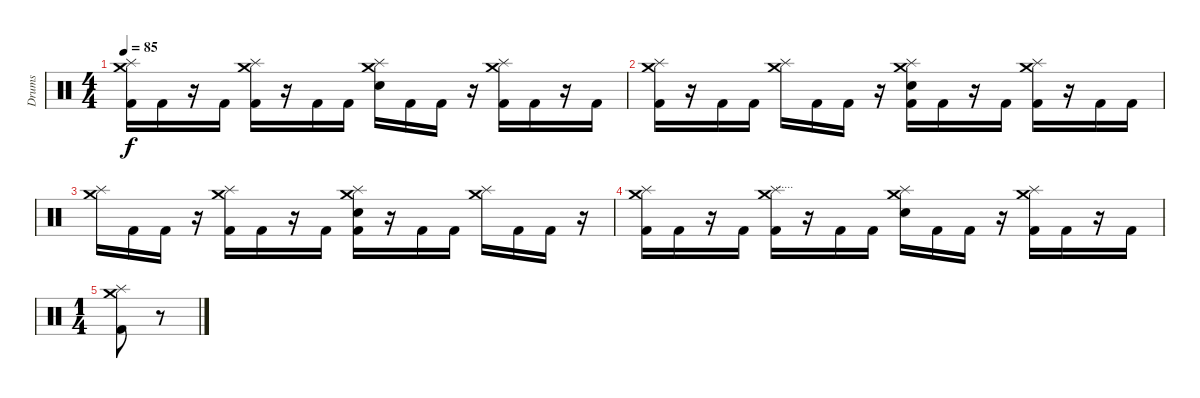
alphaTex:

\track ("Drums" "Drums") {instrument percussion}
\staff {score}
\articulation defaults
\ts (4 4)
\tempo 85
\clef neutral
\ks c
("Crash medium (hit)" "Splash (hit)" "Kick (hit) 2").16{dy f} "Kick (hit) 2".16 r.16 "Kick (hit) 2".16 ("Crash medium (hit)" "Splash (hit)" "Kick (hit) 2").16 r.16 "Kick (hit) 2".16 "Kick (hit) 2".16 ("Crash medium (hit)" "Splash (hit)" "Electric Snare (hit)").16 "Kick (hit) 2".16 "Kick (hit) 2".16 r.16 ("Crash medium (hit)" "Splash (hit)" "Kick (hit) 2").16 "Kick (hit) 2".16 r.16 "Kick (hit) 2".16 |
("Crash medium (hit)" "Splash (hit)" "Kick (hit) 2").16 r.16 "Kick (hit) 2".16 "Kick (hit) 2".16 ("Crash medium (hit)" "Splash (hit)").16 "Kick (hit) 2".16 "Kick (hit) 2".16 r.16 ("Crash medium (hit)" "Splash (hit)" "Electric Snare (hit)" "Kick (hit) 2").16 "Kick (hit) 2".16 r.16 "Kick (hit) 2".16 ("Crash medium (hit)" "Splash (hit)" "Kick (hit) 2").16 r.16 "Kick (hit) 2".16 "Kick (hit) 2".16 |
("Crash medium (hit)" "Splash (hit)").16 "Kick (hit) 2".16 "Kick (hit) 2".16 r.16 ("Crash medium (hit)" "Splash (hit)" "Kick (hit) 2").16 "Kick (hit) 2".16 r.16 "Kick (hit) 2".16 ("Crash medium (hit)" "Splash (hit)" "Electric Snare (hit)" "Kick (hit) 2").16 r.16 "Kick (hit) 2".16 "Kick (hit) 2".16 ("Crash medium (hit)" "Splash (hit)").16 "Kick (hit) 2".16 "Kick (hit) 2".16 r.16 |
("Crash medium (hit)" "Splash (hit)" "Kick (hit) 2").16 "Kick (hit) 2".16 r.16 "Kick (hit) 2".16 ("Crash medium (hit)" "Splash (hit)" "Kick (hit) 2").16{txt "......"} r.16 "Kick (hit) 2".16 "Kick (hit) 2".16 ("Crash medium (hit)" "Splash (hit)" "Electric Snare (hit)").16 "Kick (hit) 2".16 "Kick (hit) 2".16 r.16 ("Crash medium (hit)" "Splash (hit)" "Kick (hit) 2").16 "Kick (hit) 2".16 r.16 "Kick (hit) 2".16 |
\ts (1 4)
("Crash medium (hit)" "Splash (hit)" "Kick (hit) 2").8 r.8
